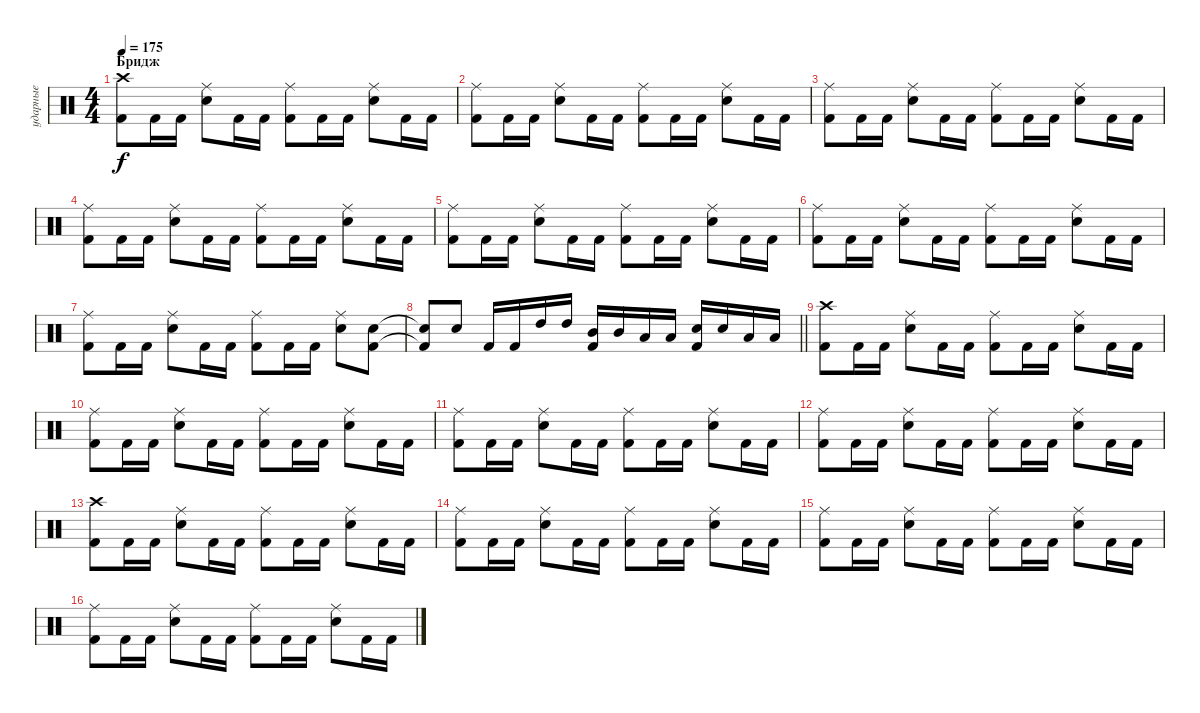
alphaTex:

\track ("ударные" "ударные") {instrument percussion}
\staff {score}
\articulation defaults
\ts (4 4)
\section ("" "Бридж")
\tempo 175
\clef neutral
\ks c
("Kick (hit) 2" "Crash high (hit)").8{dy f} "Kick (hit) 2".16 "Kick (hit) 2".16 ("Snare (hit) 2" "Ride (middle)").8 "Kick (hit) 2".16 "Kick (hit) 2".16 ("Kick (hit) 2" "Ride (middle)").8 "Kick (hit) 2".16 "Kick (hit) 2".16 ("Snare (hit) 2" "Ride (middle)").8 "Kick (hit) 2".16 "Kick (hit) 2".16 |
("Kick (hit) 2" "Ride (middle)").8 "Kick (hit) 2".16 "Kick (hit) 2".16 ("Snare (hit) 2" "Ride (middle)").8 "Kick (hit) 2".16 "Kick (hit) 2".16 ("Kick (hit) 2" "Ride (middle)").8 "Kick (hit) 2".16 "Kick (hit) 2".16 ("Snare (hit) 2" "Ride (middle)").8 "Kick (hit) 2".16 "Kick (hit) 2".16 |
("Kick (hit) 2" "Ride (middle)").8 "Kick (hit) 2".16 "Kick (hit) 2".16 ("Snare (hit) 2" "Ride (middle)").8 "Kick (hit) 2".16 "Kick (hit) 2".16 ("Kick (hit) 2" "Ride (middle)").8 "Kick (hit) 2".16 "Kick (hit) 2".16 ("Snare (hit) 2" "Ride (middle)").8 "Kick (hit) 2".16 "Kick (hit) 2".16 |
("Kick (hit) 2" "Ride (middle)").8 "Kick (hit) 2".16 "Kick (hit) 2".16 ("Snare (hit) 2" "Ride (middle)").8 "Kick (hit) 2".16 "Kick (hit) 2".16 ("Kick (hit) 2" "Ride (middle)").8 "Kick (hit) 2".16 "Kick (hit) 2".16 ("Snare (hit) 2" "Ride (middle)").8 "Kick (hit) 2".16 "Kick (hit) 2".16 |
("Kick (hit) 2" "Ride (middle)").8 "Kick (hit) 2".16 "Kick (hit) 2".16 ("Snare (hit) 2" "Ride (middle)").8 "Kick (hit) 2".16 "Kick (hit) 2".16 ("Kick (hit) 2" "Ride (middle)").8 "Kick (hit) 2".16 "Kick (hit) 2".16 ("Snare (hit) 2" "Ride (middle)").8 "Kick (hit) 2".16 "Kick (hit) 2".16 |
("Kick (hit) 2" "Ride (middle)").8 "Kick (hit) 2".16 "Kick (hit) 2".16 ("Snare (hit) 2" "Ride (middle)").8 "Kick (hit) 2".16 "Kick (hit) 2".16 ("Kick (hit) 2" "Ride (middle)").8 "Kick (hit) 2".16 "Kick (hit) 2".16 ("Snare (hit) 2" "Ride (middle)").8 "Kick (hit) 2".16 "Kick (hit) 2".16 |
("Kick (hit) 2" "Ride (middle)").8 "Kick (hit) 2".16 "Kick (hit) 2".16 ("Snare (hit) 2" "Ride (middle)").8 "Kick (hit) 2".16 "Kick (hit) 2".16 ("Kick (hit) 2" "Ride (middle)").8 "Kick (hit) 2".16 "Kick (hit) 2".16 ("Snare (hit) 2" "Ride (middle)").8 ("Kick (hit) 2" "Snare (hit) 2").8 |
\barLineRight lightlight
("Kick (hit) 2"{t} "Snare (hit) 2"{t}).8 "Snare (hit) 2".8 "Kick (hit) 2".16 "Kick (hit) 2".16 "High Tom (hit)".16 "High Tom (hit)".16 ("Kick (hit) 2" "Mid Tom (hit)").16 "Mid Tom (hit)".16 "Low Tom (hit)".16 "Low Tom (hit)".16 ("Kick (hit) 2" "Snare (hit) 2").16 "Snare (hit) 2".16 "Low Tom (hit)".16 "Low Tom (hit)".16 |
("Kick (hit) 2" "Crash high (hit)").8 "Kick (hit) 2".16 "Kick (hit) 2".16 ("Snare (hit) 2" "Ride (middle)").8 "Kick (hit) 2".16 "Kick (hit) 2".16 ("Kick (hit) 2" "Ride (middle)").8 "Kick (hit) 2".16 "Kick (hit) 2".16 ("Snare (hit) 2" "Ride (middle)").8 "Kick (hit) 2".16 "Kick (hit) 2".16 |
("Kick (hit) 2" "Ride (middle)").8 "Kick (hit) 2".16 "Kick (hit) 2".16 ("Snare (hit) 2" "Ride (middle)").8 "Kick (hit) 2".16 "Kick (hit) 2".16 ("Kick (hit) 2" "Ride (middle)").8 "Kick (hit) 2".16 "Kick (hit) 2".16 ("Snare (hit) 2" "Ride (middle)").8 "Kick (hit) 2".16 "Kick (hit) 2".16 |
("Kick (hit) 2" "Ride (middle)").8 "Kick (hit) 2".16 "Kick (hit) 2".16 ("Snare (hit) 2" "Ride (middle)").8 "Kick (hit) 2".16 "Kick (hit) 2".16 ("Kick (hit) 2" "Ride (middle)").8 "Kick (hit) 2".16 "Kick (hit) 2".16 ("Snare (hit) 2" "Ride (middle)").8 "Kick (hit) 2".16 "Kick (hit) 2".16 |
("Kick (hit) 2" "Ride (middle)").8 "Kick (hit) 2".16 "Kick (hit) 2".16 ("Snare (hit) 2" "Ride (middle)").8 "Kick (hit) 2".16 "Kick (hit) 2".16 ("Kick (hit) 2" "Ride (middle)").8 "Kick (hit) 2".16 "Kick (hit) 2".16 ("Snare (hit) 2" "Ride (middle)").8 "Kick (hit) 2".16 "Kick (hit) 2".16 |
("Kick (hit) 2" "Crash high (hit)").8 "Kick (hit) 2".16 "Kick (hit) 2".16 ("Snare (hit) 2" "Ride (middle)").8 "Kick (hit) 2".16 "Kick (hit) 2".16 ("Kick (hit) 2" "Ride (middle)").8 "Kick (hit) 2".16 "Kick (hit) 2".16 ("Snare (hit) 2" "Ride (middle)").8 "Kick (hit) 2".16 "Kick (hit) 2".16 |
("Kick (hit) 2" "Ride (middle)").8 "Kick (hit) 2".16 "Kick (hit) 2".16 ("Snare (hit) 2" "Ride (middle)").8 "Kick (hit) 2".16 "Kick (hit) 2".16 ("Kick (hit) 2" "Ride (middle)").8 "Kick (hit) 2".16 "Kick (hit) 2".16 ("Snare (hit) 2" "Ride (middle)").8 "Kick (hit) 2".16 "Kick (hit) 2".16 |
("Kick (hit) 2" "Ride (middle)").8 "Kick (hit) 2".16 "Kick (hit) 2".16 ("Snare (hit) 2" "Ride (middle)").8 "Kick (hit) 2".16 "Kick (hit) 2".16 ("Kick (hit) 2" "Ride (middle)").8 "Kick (hit) 2".16 "Kick (hit) 2".16 ("Snare (hit) 2" "Ride (middle)").8 "Kick (hit) 2".16 "Kick (hit) 2".16 |
("Kick (hit) 2" "Ride (middle)").8 "Kick (hit) 2".16 "Kick (hit) 2".16 ("Snare (hit) 2" "Ride (middle)").8 "Kick (hit) 2".16 "Kick (hit) 2".16 ("Kick (hit) 2" "Ride (middle)").8 "Kick (hit) 2".16 "Kick (hit) 2".16 ("Snare (hit) 2" "Ride (middle)").8 "Kick (hit) 2".16 "Kick (hit) 2".16
